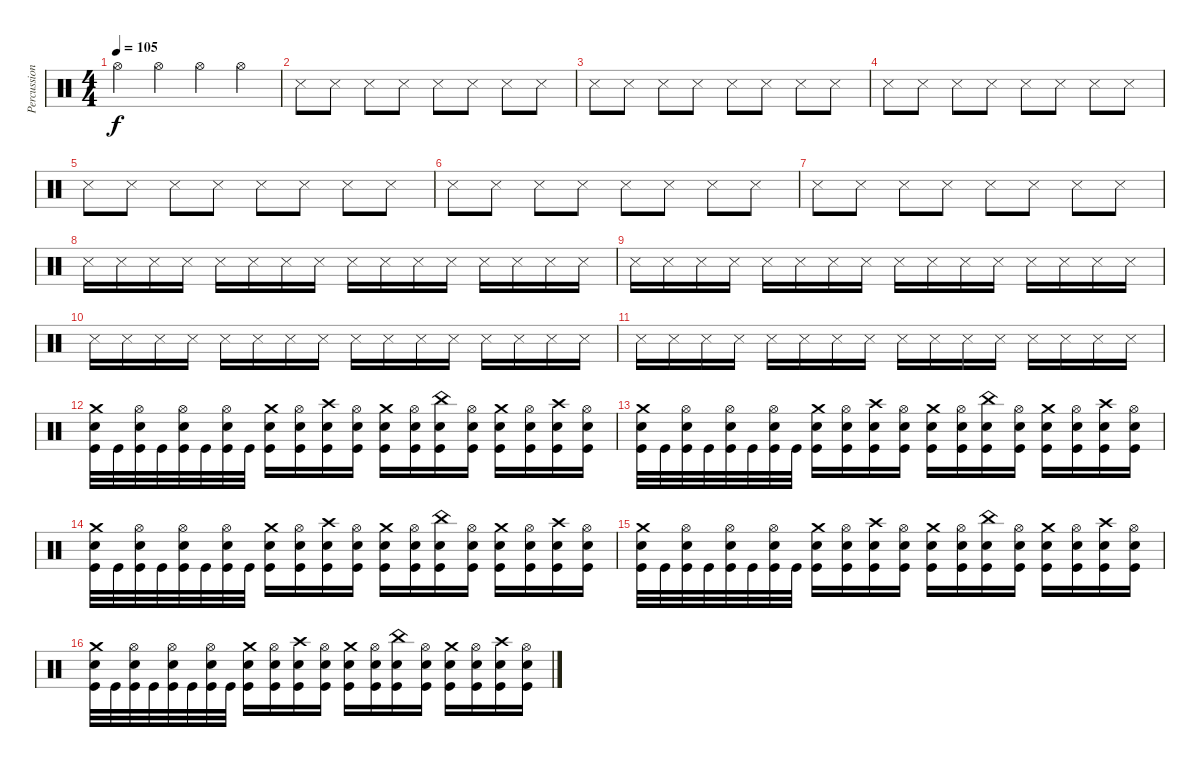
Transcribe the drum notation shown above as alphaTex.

\track ("Percussion" "Percussion") {instrument percussion}
\staff {score}
\articulation defaults
\ts (4 4)
\tempo 105
\clef neutral
\ks c "Hi-Hat (open)".4{dy f} "Hi-Hat (open)".4 "Hi-Hat (open)".4 "Hi-Hat (open)".4
|
"Metronome (hit)".8 "Metronome (hit)".8 "Metronome (hit)".8 "Metronome (hit)".8 "Metronome (hit)".8 "Metronome (hit)".8 "Metronome (hit)".8 "Metronome (hit)".8 |
"Metronome (hit)".8 "Metronome (hit)".8 "Metronome (hit)".8 "Metronome (hit)".8 "Metronome (hit)".8 "Metronome (hit)".8 "Metronome (hit)".8 "Metronome (hit)".8 |
"Metronome (hit)".8 "Metronome (hit)".8 "Metronome (hit)".8 "Metronome (hit)".8 "Metronome (hit)".8 "Metronome (hit)".8 "Metronome (hit)".8 "Metronome (hit)".8 |
"Metronome (hit)".8 "Metronome (hit)".8 "Metronome (hit)".8 "Metronome (hit)".8 "Metronome (hit)".8 "Metronome (hit)".8 "Metronome (hit)".8 "Metronome (hit)".8 |
"Metronome (hit)".8 "Metronome (hit)".8 "Metronome (hit)".8 "Metronome (hit)".8 "Metronome (hit)".8 "Metronome (hit)".8 "Metronome (hit)".8 "Metronome (hit)".8 |
"Metronome (hit)".8 "Metronome (hit)".8 "Metronome (hit)".8 "Metronome (hit)".8 "Metronome (hit)".8 "Metronome (hit)".8 "Metronome (hit)".8 "Metronome (hit)".8 |
"Metronome (hit)".16 "Metronome (hit)".16 "Metronome (hit)".16 "Metronome (hit)".16 "Metronome (hit)".16 "Metronome (hit)".16 "Metronome (hit)".16 "Metronome (hit)".16 "Metronome (hit)".16 "Metronome (hit)".16 "Metronome (hit)".16 "Metronome (hit)".16 "Metronome (hit)".16 "Metronome (hit)".16 "Metronome (hit)".16 "Metronome (hit)".16 |
"Metronome (hit)".16 "Metronome (hit)".16 "Metronome (hit)".16 "Metronome (hit)".16 "Metronome (hit)".16 "Metronome (hit)".16 "Metronome (hit)".16 "Metronome (hit)".16 "Metronome (hit)".16 "Metronome (hit)".16 "Metronome (hit)".16 "Metronome (hit)".16 "Metronome (hit)".16 "Metronome (hit)".16 "Metronome (hit)".16 "Metronome (hit)".16 |
"Metronome (hit)".16 "Metronome (hit)".16 "Metronome (hit)".16 "Metronome (hit)".16 "Metronome (hit)".16 "Metronome (hit)".16 "Metronome (hit)".16 "Metronome (hit)".16 "Metronome (hit)".16 "Metronome (hit)".16 "Metronome (hit)".16 "Metronome (hit)".16 "Metronome (hit)".16 "Metronome (hit)".16 "Metronome (hit)".16 "Metronome (hit)".16 |
"Metronome (hit)".16 "Metronome (hit)".16 "Metronome (hit)".16 "Metronome (hit)".16 "Metronome (hit)".16 "Metronome (hit)".16 "Metronome (hit)".16 "Metronome (hit)".16 "Metronome (hit)".16 "Metronome (hit)".16 "Metronome (hit)".16 "Metronome (hit)".16 "Metronome (hit)".16 "Metronome (hit)".16 "Metronome (hit)".16 "Metronome (hit)".16 |
("Crash medium (hit)" "Electric Snare (hit)" "Kick (hit)").32 "Kick (hit)".32 ("Hi-Hat (open)" "Electric Snare (hit)" "Kick (hit)").32 "Kick (hit)".32 ("Hi-Hat (open)" "Electric Snare (hit)" "Kick (hit)").32 "Kick (hit)".32 ("Hi-Hat (open)" "Electric Snare (hit)" "Kick (hit)").32 "Kick (hit)".32 ("Crash medium (hit)" "Electric Snare (hit)" "Kick (hit)").16 ("Hi-Hat (open)" "Electric Snare (hit)" "Kick (hit)").16 ("Crash high (hit)" "Electric Snare (hit)" "Kick (hit)").16 ("Hi-Hat (open)" "Electric Snare (hit)" "Kick (hit)").16 ("Crash medium (hit)" "Electric Snare (hit)" "Kick (hit)").16 ("Hi-Hat (open)" "Electric Snare (hit)" "Kick (hit)").16 ("China (hit)" "Electric Snare (hit)" "Kick (hit)").16 ("Hi-Hat (open)" "Electric Snare (hit)" "Kick (hit)").16 ("Crash medium (hit)" "Electric Snare (hit)" "Kick (hit)").16 ("Hi-Hat (open)" "Electric Snare (hit)" "Kick (hit)").16 ("Crash high (hit)" "Electric Snare (hit)" "Kick (hit)").16 ("Hi-Hat (open)" "Electric Snare (hit)" "Kick (hit)").16 |
("Crash medium (hit)" "Electric Snare (hit)" "Kick (hit)").32 "Kick (hit)".32 ("Hi-Hat (open)" "Electric Snare (hit)" "Kick (hit)").32 "Kick (hit)".32 ("Hi-Hat (open)" "Electric Snare (hit)" "Kick (hit)").32 "Kick (hit)".32 ("Hi-Hat (open)" "Electric Snare (hit)" "Kick (hit)").32 "Kick (hit)".32 ("Crash medium (hit)" "Electric Snare (hit)" "Kick (hit)").16 ("Hi-Hat (open)" "Electric Snare (hit)" "Kick (hit)").16 ("Crash high (hit)" "Electric Snare (hit)" "Kick (hit)").16 ("Hi-Hat (open)" "Electric Snare (hit)" "Kick (hit)").16 ("Crash medium (hit)" "Electric Snare (hit)" "Kick (hit)").16 ("Hi-Hat (open)" "Electric Snare (hit)" "Kick (hit)").16 ("China (hit)" "Electric Snare (hit)" "Kick (hit)").16 ("Hi-Hat (open)" "Electric Snare (hit)" "Kick (hit)").16 ("Crash medium (hit)" "Electric Snare (hit)" "Kick (hit)").16 ("Hi-Hat (open)" "Electric Snare (hit)" "Kick (hit)").16 ("Crash high (hit)" "Electric Snare (hit)" "Kick (hit)").16 ("Hi-Hat (open)" "Electric Snare (hit)" "Kick (hit)").16 |
("Crash medium (hit)" "Electric Snare (hit)" "Kick (hit)").32 "Kick (hit)".32 ("Hi-Hat (open)" "Electric Snare (hit)" "Kick (hit)").32 "Kick (hit)".32 ("Hi-Hat (open)" "Electric Snare (hit)" "Kick (hit)").32 "Kick (hit)".32 ("Hi-Hat (open)" "Electric Snare (hit)" "Kick (hit)").32 "Kick (hit)".32 ("Crash medium (hit)" "Electric Snare (hit)" "Kick (hit)").16 ("Hi-Hat (open)" "Electric Snare (hit)" "Kick (hit)").16 ("Crash high (hit)" "Electric Snare (hit)" "Kick (hit)").16 ("Hi-Hat (open)" "Electric Snare (hit)" "Kick (hit)").16 ("Crash medium (hit)" "Electric Snare (hit)" "Kick (hit)").16 ("Hi-Hat (open)" "Electric Snare (hit)" "Kick (hit)").16 ("China (hit)" "Electric Snare (hit)" "Kick (hit)").16 ("Hi-Hat (open)" "Electric Snare (hit)" "Kick (hit)").16 ("Crash medium (hit)" "Electric Snare (hit)" "Kick (hit)").16 ("Hi-Hat (open)" "Electric Snare (hit)" "Kick (hit)").16 ("Crash high (hit)" "Electric Snare (hit)" "Kick (hit)").16 ("Hi-Hat (open)" "Electric Snare (hit)" "Kick (hit)").16 |
("Crash medium (hit)" "Electric Snare (hit)" "Kick (hit)").32 "Kick (hit)".32 ("Hi-Hat (open)" "Electric Snare (hit)" "Kick (hit)").32 "Kick (hit)".32 ("Hi-Hat (open)" "Electric Snare (hit)" "Kick (hit)").32 "Kick (hit)".32 ("Hi-Hat (open)" "Electric Snare (hit)" "Kick (hit)").32 "Kick (hit)".32 ("Crash medium (hit)" "Electric Snare (hit)" "Kick (hit)").16 ("Hi-Hat (open)" "Electric Snare (hit)" "Kick (hit)").16 ("Crash high (hit)" "Electric Snare (hit)" "Kick (hit)").16 ("Hi-Hat (open)" "Electric Snare (hit)" "Kick (hit)").16 ("Crash medium (hit)" "Electric Snare (hit)" "Kick (hit)").16 ("Hi-Hat (open)" "Electric Snare (hit)" "Kick (hit)").16 ("China (hit)" "Electric Snare (hit)" "Kick (hit)").16 ("Hi-Hat (open)" "Electric Snare (hit)" "Kick (hit)").16 ("Crash medium (hit)" "Electric Snare (hit)" "Kick (hit)").16 ("Hi-Hat (open)" "Electric Snare (hit)" "Kick (hit)").16 ("Crash high (hit)" "Electric Snare (hit)" "Kick (hit)").16 ("Hi-Hat (open)" "Electric Snare (hit)" "Kick (hit)").16 |
("Crash medium (hit)" "Electric Snare (hit)" "Kick (hit)").32 "Kick (hit)".32 ("Hi-Hat (open)" "Electric Snare (hit)" "Kick (hit)").32 "Kick (hit)".32 ("Hi-Hat (open)" "Electric Snare (hit)" "Kick (hit)").32 "Kick (hit)".32 ("Hi-Hat (open)" "Electric Snare (hit)" "Kick (hit)").32 "Kick (hit)".32 ("Crash medium (hit)" "Electric Snare (hit)" "Kick (hit)").16 ("Hi-Hat (open)" "Electric Snare (hit)" "Kick (hit)").16 ("Crash high (hit)" "Electric Snare (hit)" "Kick (hit)").16 ("Hi-Hat (open)" "Electric Snare (hit)" "Kick (hit)").16 ("Crash medium (hit)" "Electric Snare (hit)" "Kick (hit)").16 ("Hi-Hat (open)" "Electric Snare (hit)" "Kick (hit)").16 ("China (hit)" "Electric Snare (hit)" "Kick (hit)").16 ("Hi-Hat (open)" "Electric Snare (hit)" "Kick (hit)").16 ("Crash medium (hit)" "Electric Snare (hit)" "Kick (hit)").16 ("Hi-Hat (open)" "Electric Snare (hit)" "Kick (hit)").16 ("Crash high (hit)" "Electric Snare (hit)" "Kick (hit)").16 ("Hi-Hat (open)" "Electric Snare (hit)" "Kick (hit)").16
